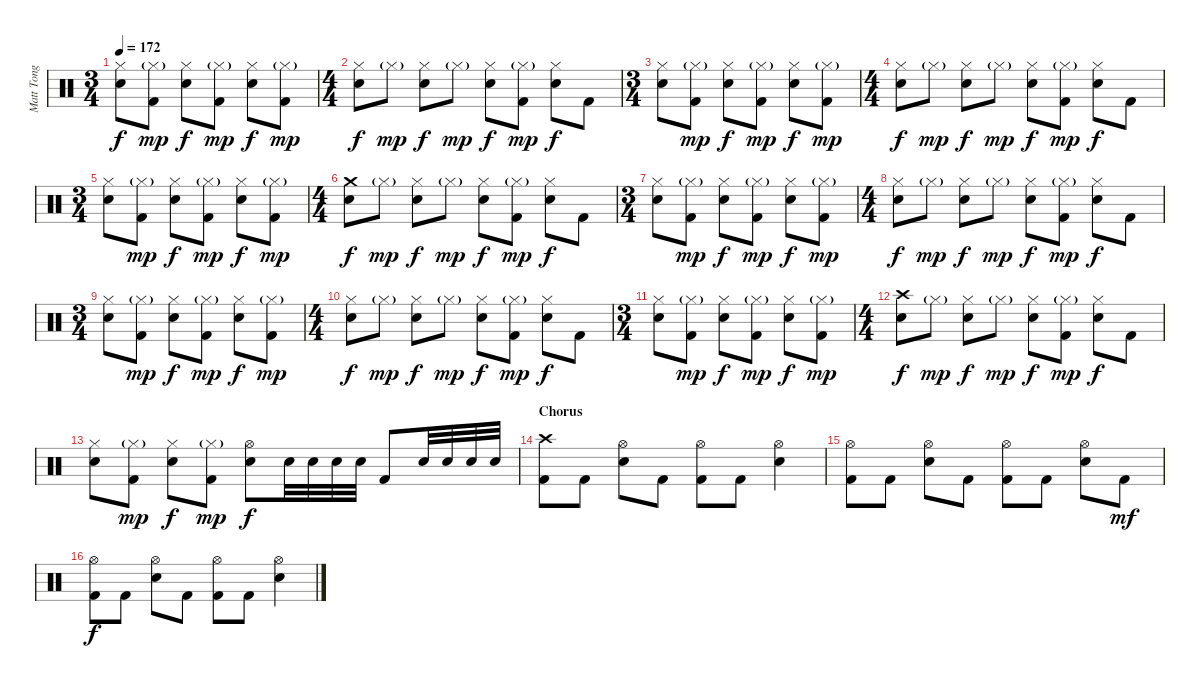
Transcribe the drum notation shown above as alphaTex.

\track ("Matt Tong" "Matt Tong") {instrument percussion}
\staff {score}
\articulation defaults
\ts (3 4)
\tempo 172
\clef neutral
\ks c
("Hi-Hat (closed)" "Snare (hit) 2").8{dy f} ("Hi-Hat (closed)"{g} "Kick (hit) 2").8{dy mp} ("Hi-Hat (closed)" "Snare (hit) 2").8{dy f} ("Hi-Hat (closed)"{g} "Kick (hit) 2").8{dy mp} ("Hi-Hat (closed)" "Snare (hit) 2").8{dy f} ("Hi-Hat (closed)"{g} "Kick (hit) 2").8{dy mp} |
\ts (4 4)
("Hi-Hat (closed)" "Snare (hit) 2").8{dy f} "Hi-Hat (closed)"{g}.8{dy mp} ("Hi-Hat (closed)" "Snare (hit) 2").8{dy f} "Hi-Hat (closed)"{g}.8{dy mp} ("Hi-Hat (closed)" "Snare (hit) 2").8{dy f} ("Hi-Hat (closed)"{g} "Kick (hit) 2").8{dy mp} ("Hi-Hat (closed)" "Snare (hit) 2").8{dy f} "Kick (hit) 2".8 |
\ts (3 4)
("Hi-Hat (closed)" "Snare (hit) 2").8 ("Hi-Hat (closed)"{g} "Kick (hit) 2").8{dy mp} ("Hi-Hat (closed)" "Snare (hit) 2").8{dy f} ("Hi-Hat (closed)"{g} "Kick (hit) 2").8{dy mp} ("Hi-Hat (closed)" "Snare (hit) 2").8{dy f} ("Hi-Hat (closed)"{g} "Kick (hit) 2").8{dy mp} |
\ts (4 4)
("Hi-Hat (closed)" "Snare (hit) 2").8{dy f} "Hi-Hat (closed)"{g}.8{dy mp} ("Hi-Hat (closed)" "Snare (hit) 2").8{dy f} "Hi-Hat (closed)"{g}.8{dy mp} ("Hi-Hat (closed)" "Snare (hit) 2").8{dy f} ("Hi-Hat (closed)"{g} "Kick (hit) 2").8{dy mp} ("Hi-Hat (closed)" "Snare (hit) 2").8{dy f} "Kick (hit) 2".8 |
\ts (3 4)
("Hi-Hat (closed)" "Snare (hit) 2").8 ("Hi-Hat (closed)"{g} "Kick (hit) 2").8{dy mp} ("Hi-Hat (closed)" "Snare (hit) 2").8{dy f} ("Hi-Hat (closed)"{g} "Kick (hit) 2").8{dy mp} ("Hi-Hat (closed)" "Snare (hit) 2").8{dy f} ("Hi-Hat (closed)"{g} "Kick (hit) 2").8{dy mp} |
\ts (4 4)
("Crash medium (hit)" "Snare (hit) 2").8{dy f} "Hi-Hat (closed)"{g}.8{dy mp} ("Hi-Hat (closed)" "Snare (hit) 2").8{dy f} "Hi-Hat (closed)"{g}.8{dy mp} ("Hi-Hat (closed)" "Snare (hit) 2").8{dy f} ("Hi-Hat (closed)"{g} "Kick (hit) 2").8{dy mp} ("Hi-Hat (closed)" "Snare (hit) 2").8{dy f} "Kick (hit) 2".8 |
\ts (3 4)
("Hi-Hat (closed)" "Snare (hit) 2").8 ("Hi-Hat (closed)"{g} "Kick (hit) 2").8{dy mp} ("Hi-Hat (closed)" "Snare (hit) 2").8{dy f} ("Hi-Hat (closed)"{g} "Kick (hit) 2").8{dy mp} ("Hi-Hat (closed)" "Snare (hit) 2").8{dy f} ("Hi-Hat (closed)"{g} "Kick (hit) 2").8{dy mp} |
\ts (4 4)
("Hi-Hat (closed)" "Snare (hit) 2").8{dy f} "Hi-Hat (closed)"{g}.8{dy mp} ("Hi-Hat (closed)" "Snare (hit) 2").8{dy f} "Hi-Hat (closed)"{g}.8{dy mp} ("Hi-Hat (closed)" "Snare (hit) 2").8{dy f} ("Hi-Hat (closed)"{g} "Kick (hit) 2").8{dy mp} ("Hi-Hat (closed)" "Snare (hit) 2").8{dy f} "Kick (hit) 2".8 |
\ts (3 4)
("Hi-Hat (closed)" "Snare (hit) 2").8 ("Hi-Hat (closed)"{g} "Kick (hit) 2").8{dy mp} ("Hi-Hat (closed)" "Snare (hit) 2").8{dy f} ("Hi-Hat (closed)"{g} "Kick (hit) 2").8{dy mp} ("Hi-Hat (closed)" "Snare (hit) 2").8{dy f} ("Hi-Hat (closed)"{g} "Kick (hit) 2").8{dy mp} |
\ts (4 4)
("Hi-Hat (closed)" "Snare (hit) 2").8{dy f} "Hi-Hat (closed)"{g}.8{dy mp} ("Hi-Hat (closed)" "Snare (hit) 2").8{dy f} "Hi-Hat (closed)"{g}.8{dy mp} ("Hi-Hat (closed)" "Snare (hit) 2").8{dy f} ("Hi-Hat (closed)"{g} "Kick (hit) 2").8{dy mp} ("Hi-Hat (closed)" "Snare (hit) 2").8{dy f} "Kick (hit) 2".8 |
\ts (3 4)
("Hi-Hat (closed)" "Snare (hit) 2").8 ("Hi-Hat (closed)"{g} "Kick (hit) 2").8{dy mp} ("Hi-Hat (closed)" "Snare (hit) 2").8{dy f} ("Hi-Hat (closed)"{g} "Kick (hit) 2").8{dy mp} ("Hi-Hat (closed)" "Snare (hit) 2").8{dy f} ("Hi-Hat (closed)"{g} "Kick (hit) 2").8{dy mp} |
\ts (4 4)
("Crash high (hit)" "Snare (hit) 2").8{dy f} "Hi-Hat (closed)"{g}.8{dy mp} ("Hi-Hat (closed)" "Snare (hit) 2").8{dy f} "Hi-Hat (closed)"{g}.8{dy mp} ("Hi-Hat (closed)" "Snare (hit) 2").8{dy f} ("Hi-Hat (closed)"{g} "Kick (hit) 2").8{dy mp} ("Hi-Hat (closed)" "Snare (hit) 2").8{dy f} "Kick (hit) 2".8 |
("Hi-Hat (closed)" "Snare (hit) 2").8 ("Hi-Hat (closed)"{g} "Kick (hit) 2").8{dy mp} ("Hi-Hat (closed)" "Snare (hit) 2").8{dy f} ("Hi-Hat (closed)"{g} "Kick (hit) 2").8{dy mp} ("Hi-Hat (open)" "Snare (hit) 2").8{dy f} "Snare (hit) 2".32 "Snare (hit) 2".32 "Snare (hit) 2".32 "Snare (hit) 2".32 "Kick (hit) 2".8 "Snare (hit) 2".32 "Snare (hit) 2".32 "Snare (hit) 2".32 "Snare (hit) 2".32 |
\section ("" "Chorus")
("Crash high (hit)" "Kick (hit) 2").8 "Kick (hit) 2".8 ("Hi-Hat (open)" "Snare (hit) 2").8 "Kick (hit) 2".8 ("Hi-Hat (open)" "Kick (hit) 2").8 "Kick (hit) 2".8 ("Hi-Hat (open)" "Snare (hit) 2").4 |
("Hi-Hat (open)" "Kick (hit) 2").8 "Kick (hit) 2".8 ("Hi-Hat (open)" "Snare (hit) 2").8 "Kick (hit) 2".8 ("Hi-Hat (open)" "Kick (hit) 2").8 "Kick (hit) 2".8 ("Hi-Hat (open)" "Snare (hit) 2").8 "Kick (hit) 2".8{dy mf} |
("Hi-Hat (open)" "Kick (hit) 2").8{dy f} "Kick (hit) 2".8 ("Hi-Hat (open)" "Snare (hit) 2").8 "Kick (hit) 2".8 ("Hi-Hat (open)" "Kick (hit) 2").8 "Kick (hit) 2".8 ("Hi-Hat (open)" "Snare (hit) 2").4
